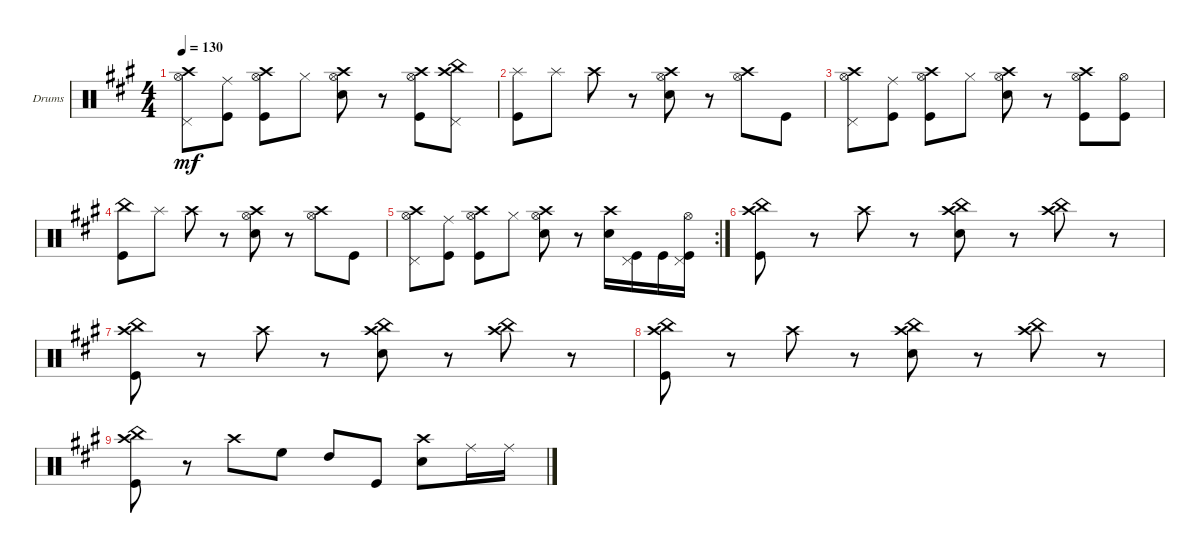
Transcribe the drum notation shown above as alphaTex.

\defaultSystemsLayout 4
\bracketExtendMode groupsimilarinstruments
\firstSystemTrackNameOrientation horizontal
\otherSystemsTrackNameOrientation horizontal
\track ("Bateria" "Drums") {instrument percussion}
\staff {score}
\articulation defaults
\ts (4 4)
\tempo 130
\clef neutral
\ks a
("Pedal Hi-Hat (hit)" "Hi-Hat (open)" "Crash high (hit)").8{dy mf} ("Kick (hit)" "Ride (middle)").8 ("Kick (hit)" "Hi-Hat (open)" "Crash high (hit)").8 "Hi-Hat (closed)".8 ("Snare (hit) 2" "Hi-Hat (open)" "Crash high (hit)").8 r.8 ("Crash high (hit)" "Hi-Hat (open)" "Kick (hit)").8 ("Crash high (hit)" "China (hit)" "Pedal Hi-Hat (hit)").8 |
("Kick (hit)" "Splash (hit)").8 "Splash (hit)".8 "Crash high (hit)".8 r.8 ("Snare (hit) 2" "Hi-Hat (open)" "Crash high (hit)").8 r.8 ("Hi-Hat (open)" "Crash high (hit)").8 "Kick (hit)".8 |
("Pedal Hi-Hat (hit)" "Hi-Hat (open)" "Crash high (hit)").8 ("Kick (hit)" "Ride (middle)").8 ("Kick (hit)" "Hi-Hat (open)" "Crash high (hit)").8 "Hi-Hat (closed)".8 ("Snare (hit) 2" "Hi-Hat (open)" "Crash high (hit)").8 r.8 ("Kick (hit)" "Hi-Hat (open)" "Crash high (hit)").8 ("Kick (hit)" "Hi-Hat (open)").8 |
("Kick (hit)" "China (hit)").8 "Splash (hit)".8 "Crash high (hit)".8 r.8 ("Snare (hit) 2" "Hi-Hat (open)" "Crash high (hit)").8 r.8 ("Hi-Hat (open)" "Crash high (hit)").8 "Kick (hit)".8 |
\rc 2
("Pedal Hi-Hat (hit)" "Hi-Hat (open)" "Crash high (hit)").8 ("Kick (hit)" "Ride (middle)").8 ("Kick (hit)" "Hi-Hat (open)" "Crash high (hit)").8 "Hi-Hat (closed)".8 ("Snare (hit) 2" "Hi-Hat (open)" "Crash high (hit)").8 r.8 ("Crash high (hit)" "Snare (hit) 2").16 ("Kick (hit)" "Pedal Hi-Hat (hit)").16 "Kick (hit)".16 ("Hi-Hat (open)" "Kick (hit)" "Pedal Hi-Hat (hit)").16 |
("China (hit)" "Kick (hit)" "Crash high (hit)").8 r.8 "Crash high (hit)".8 r.8 ("China (hit)" "Crash high (hit)" "Snare (hit) 2").8 r.8 ("China (hit)" "Crash high (hit)").8 r.8 |
("China (hit)" "Kick (hit)" "Crash high (hit)").8 r.8 "Crash high (hit)".8 r.8 ("China (hit)" "Crash high (hit)" "Snare (hit) 2").8 r.8 ("China (hit)" "Crash high (hit)").8 r.8 |
("China (hit)" "Kick (hit)" "Crash high (hit)").8 r.8 "Crash high (hit)".8 r.8 ("China (hit)" "Crash high (hit)" "Snare (hit) 2").8 r.8 ("China (hit)" "Crash high (hit)").8 r.8 |
("China (hit)" "Kick (hit)" "Crash high (hit)").8 r.8 "Crash high (hit)".8 "High Floor Tom (hit)".8 "High Tom (hit)".8 "Kick (hit)".8 ("Snare (hit) 2" "Crash high (hit)").8 "Ride (middle)".16 "Ride (middle)".16
